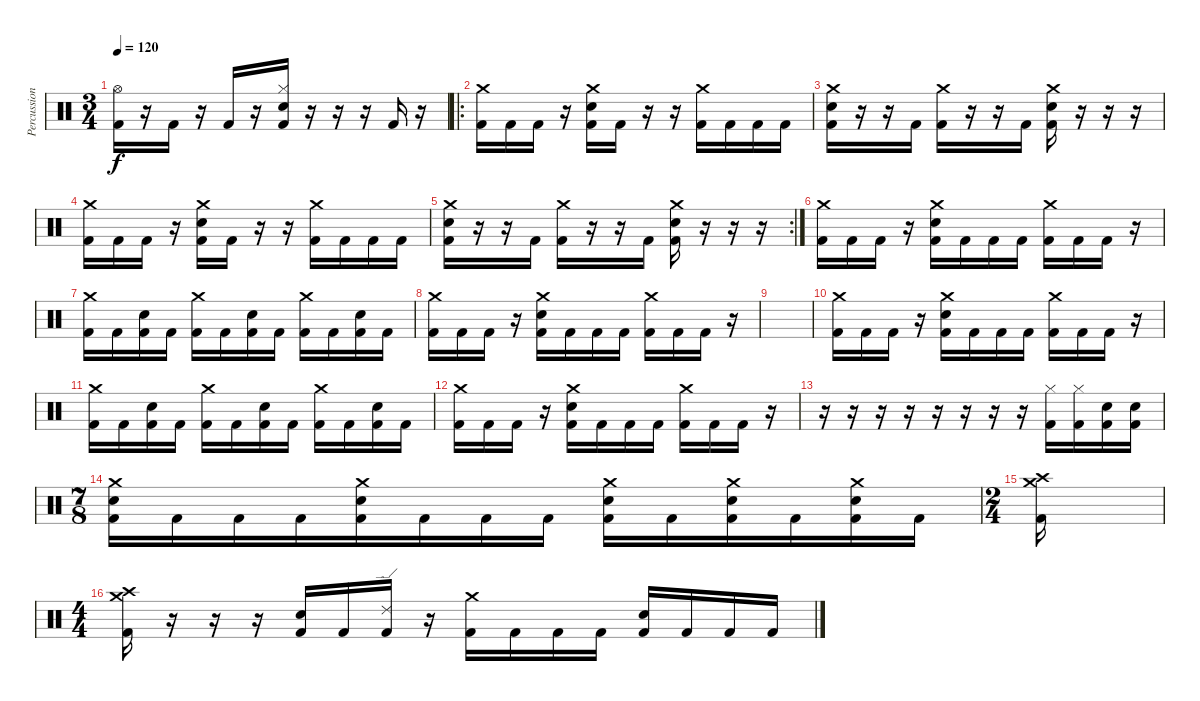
\track ("Percussion" "Percussion") {instrument percussion}
\staff {score}
\articulation defaults
\ts (3 4)
\tempo 120
\clef neutral
\ks c
("Hi-Hat (open)" "Kick (hit) 2").16{dy f} r.16 "Kick (hit) 2".16 r.16 "Kick (hit) 2".16 r.16 ("Hi-Hat (closed)" "Electric Snare (hit)" "Kick (hit) 2").16 r.16 r.16 r.16 "Kick (hit) 2".16 r.16 |
\ro
("Crash medium (hit)" "Kick (hit) 2").16 "Kick (hit) 2".16 "Kick (hit) 2".16 r.16 ("Crash medium (hit)" "Electric Snare (hit)" "Kick (hit) 2").16 "Kick (hit) 2".16 r.16 r.16 ("Crash medium (hit)" "Kick (hit) 2").16 "Kick (hit) 2".16 "Kick (hit) 2".16 "Kick (hit) 2".16 |
("Crash medium (hit)" "Electric Snare (hit)" "Kick (hit) 2").16 r.16 r.16 "Kick (hit) 2".16 ("Crash medium (hit)" "Kick (hit) 2").16 r.16 r.16 "Kick (hit) 2".16 ("Crash medium (hit)" "Electric Snare (hit)" "Kick (hit) 2").16 r.16 r.16 r.16 |
("Crash medium (hit)" "Kick (hit) 2").16 "Kick (hit) 2".16 "Kick (hit) 2".16 r.16 ("Crash medium (hit)" "Electric Snare (hit)" "Kick (hit) 2").16 "Kick (hit) 2".16 r.16 r.16 ("Crash medium (hit)" "Kick (hit) 2").16 "Kick (hit) 2".16 "Kick (hit) 2".16 "Kick (hit) 2".16 |
\rc 2
("Crash medium (hit)" "Electric Snare (hit)" "Kick (hit) 2").16 r.16 r.16 "Kick (hit) 2".16 ("Crash medium (hit)" "Kick (hit) 2").16 r.16 r.16 "Kick (hit) 2".16 ("Crash medium (hit)" "Electric Snare (hit)" "Kick (hit) 2").16 r.16 r.16 r.16 |
("Crash medium (hit)" "Kick (hit) 2").16 "Kick (hit) 2".16 "Kick (hit) 2".16 r.16 ("Crash medium (hit)" "Electric Snare (hit)" "Kick (hit) 2").16 "Kick (hit) 2".16 "Kick (hit) 2".16 "Kick (hit) 2".16 ("Crash medium (hit)" "Kick (hit) 2").16 "Kick (hit) 2".16 "Kick (hit) 2".16 r.16 |
("Crash medium (hit)" "Kick (hit) 2").16 "Kick (hit) 2".16 ("Electric Snare (hit)" "Kick (hit) 2").16 "Kick (hit) 2".16 ("Crash medium (hit)" "Kick (hit) 2").16 "Kick (hit) 2".16 ("Electric Snare (hit)" "Kick (hit) 2").16 "Kick (hit) 2".16 ("Crash medium (hit)" "Kick (hit) 2").16 "Kick (hit) 2".16 ("Electric Snare (hit)" "Kick (hit) 2").16 "Kick (hit) 2".16 |
("Crash medium (hit)" "Kick (hit) 2").16 "Kick (hit) 2".16 "Kick (hit) 2".16 r.16 ("Crash medium (hit)" "Electric Snare (hit)" "Kick (hit) 2").16 "Kick (hit) 2".16 "Kick (hit) 2".16 "Kick (hit) 2".16 ("Crash medium (hit)" "Kick (hit) 2").16 "Kick (hit) 2".16 "Kick (hit) 2".16 r.16 |
|
("Crash medium (hit)" "Kick (hit) 2").16 "Kick (hit) 2".16 "Kick (hit) 2".16 r.16 ("Crash medium (hit)" "Electric Snare (hit)" "Kick (hit) 2").16 "Kick (hit) 2".16 "Kick (hit) 2".16 "Kick (hit) 2".16 ("Crash medium (hit)" "Kick (hit) 2").16 "Kick (hit) 2".16 "Kick (hit) 2".16 r.16 |
("Crash medium (hit)" "Kick (hit) 2").16 "Kick (hit) 2".16 ("Electric Snare (hit)" "Kick (hit) 2").16 "Kick (hit) 2".16 ("Crash medium (hit)" "Kick (hit) 2").16 "Kick (hit) 2".16 ("Electric Snare (hit)" "Kick (hit) 2").16 "Kick (hit) 2".16 ("Crash medium (hit)" "Kick (hit) 2").16 "Kick (hit) 2".16 ("Electric Snare (hit)" "Kick (hit) 2").16 "Kick (hit) 2".16 |
("Crash medium (hit)" "Kick (hit) 2").16 "Kick (hit) 2".16 "Kick (hit) 2".16 r.16 ("Crash medium (hit)" "Electric Snare (hit)" "Kick (hit) 2").16 "Kick (hit) 2".16 "Kick (hit) 2".16 "Kick (hit) 2".16 ("Crash medium (hit)" "Kick (hit) 2").16 "Kick (hit) 2".16 "Kick (hit) 2".16 r.16 |
r.16 r.16 r.16 r.16 r.16 r.16 r.16 r.16 ("Hi-Hat (closed)" "Kick (hit) 2").16 ("Hi-Hat (closed)" "Kick (hit) 2").16 ("Electric Snare (hit)" "Kick (hit) 2").16 ("Electric Snare (hit)" "Kick (hit) 2").16 |
\ts (7 8)
("Crash medium (hit)" "Electric Snare (hit)" "Kick (hit) 2").16 "Kick (hit) 2".16 "Kick (hit) 2".16 "Kick (hit) 2".16 ("Crash medium (hit)" "Electric Snare (hit)" "Kick (hit) 2").16 "Kick (hit) 2".16 "Kick (hit) 2".16 "Kick (hit) 2".16 ("Crash medium (hit)" "Electric Snare (hit)" "Kick (hit) 2").16 "Kick (hit) 2".16 ("Crash medium (hit)" "Electric Snare (hit)" "Kick (hit) 2").16 "Kick (hit) 2".16 ("Crash medium (hit)" "Electric Snare (hit)" "Kick (hit) 2").16 "Kick (hit) 2".16 |
\ts (2 4)
("Crash medium (hit)" "Crash high (hit)" "Kick (hit) 2").16 |
\ts (4 4)
("Crash medium (hit)" "Crash high (hit)" "Kick (hit) 2").16 r.16 r.16 r.16 ("Electric Snare (hit)" "Kick (hit) 2").16 "Kick (hit) 2".16 ("Ride (edge) 2" "Kick (hit) 2").16 r.16 ("Crash medium (hit)" "Kick (hit) 2").16 "Kick (hit) 2".16 "Kick (hit) 2".16 "Kick (hit) 2".16 ("Electric Snare (hit)" "Kick (hit) 2").16 "Kick (hit) 2".16 "Kick (hit) 2".16 "Kick (hit) 2".16
